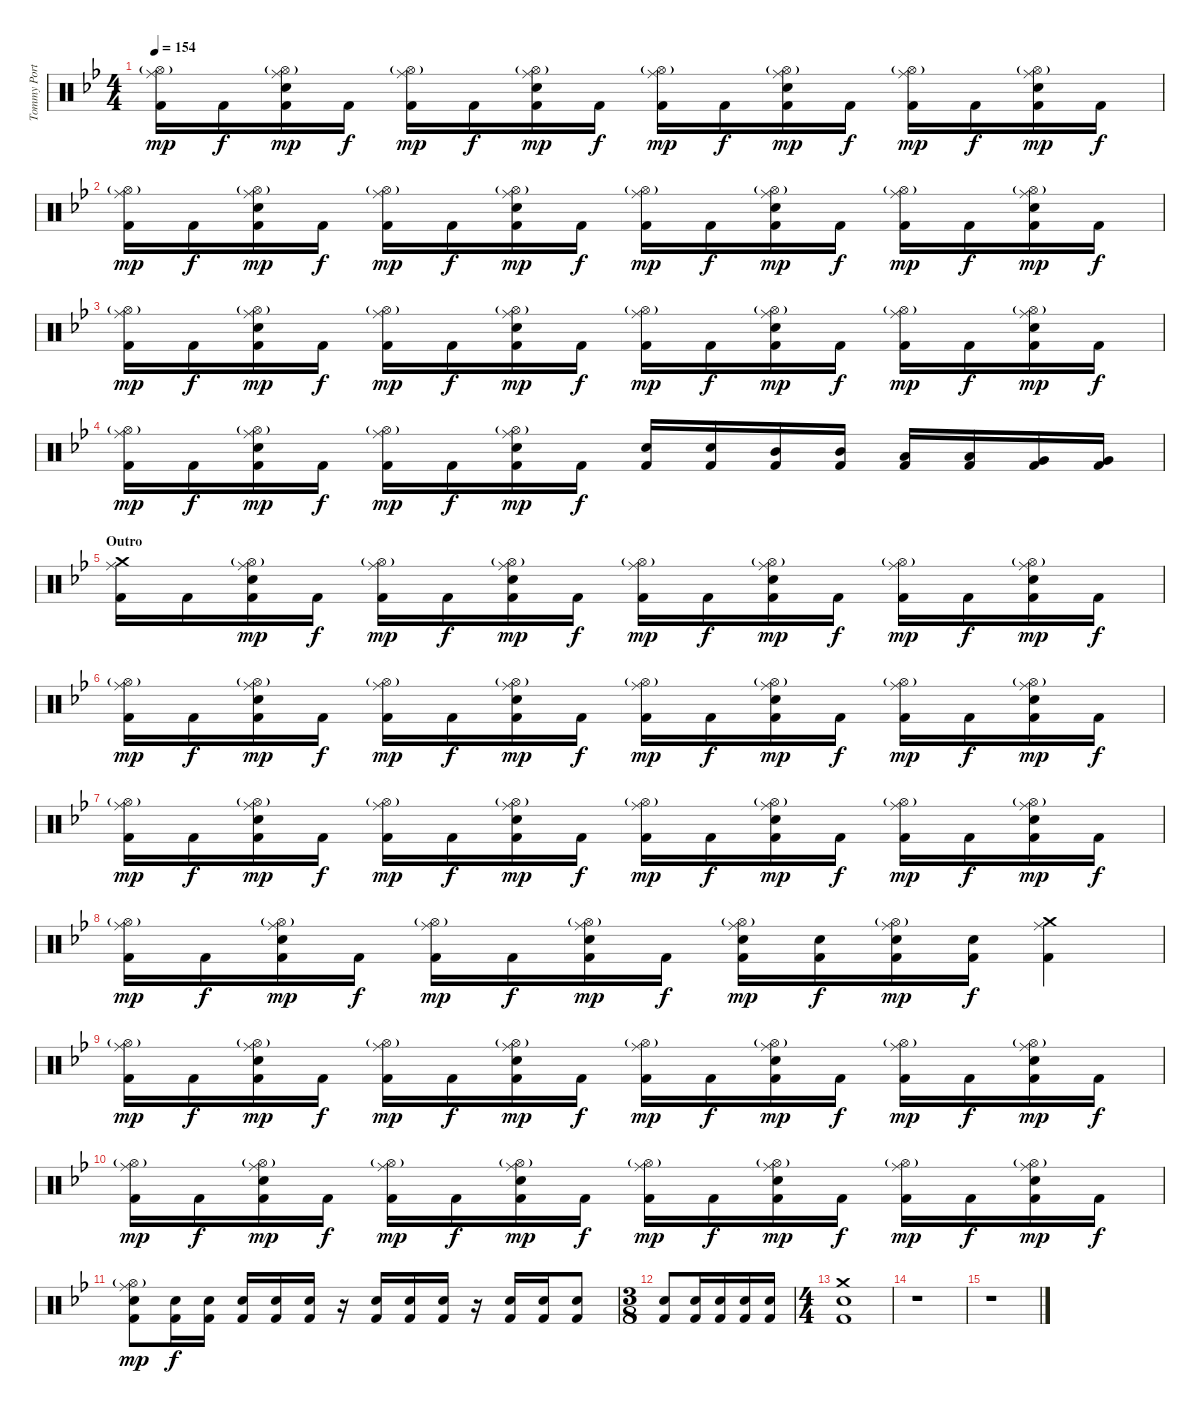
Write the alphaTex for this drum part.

\track ("Tommy Portimo" "Tommy Port") {instrument percussion}
\staff {score}
\articulation defaults
\ts (4 4)
\tempo 154
\clef neutral
\ks gminor
("Hi-Hat (open)"{g} "Ride (middle)" "Kick (hit) 2").16{dy mp} "Kick (hit) 2".16{dy f} ("Hi-Hat (open)"{g} "Ride (middle)" "Electric Snare (hit)" "Kick (hit) 2").16{dy mp} "Kick (hit) 2".16{dy f} ("Hi-Hat (open)"{g} "Ride (middle)" "Kick (hit) 2").16{dy mp} "Kick (hit) 2".16{dy f} ("Hi-Hat (open)"{g} "Ride (middle)" "Electric Snare (hit)" "Kick (hit) 2").16{dy mp} "Kick (hit) 2".16{dy f} ("Hi-Hat (open)"{g} "Ride (middle)" "Kick (hit) 2").16{dy mp} "Kick (hit) 2".16{dy f} ("Hi-Hat (open)"{g} "Ride (middle)" "Electric Snare (hit)" "Kick (hit) 2").16{dy mp} "Kick (hit) 2".16{dy f} ("Hi-Hat (open)"{g} "Ride (middle)" "Kick (hit) 2").16{dy mp} "Kick (hit) 2".16{dy f} ("Hi-Hat (open)"{g} "Ride (middle)" "Electric Snare (hit)" "Kick (hit) 2").16{dy mp} "Kick (hit) 2".16{dy f} |
("Hi-Hat (open)"{g} "Ride (middle)" "Kick (hit) 2").16{dy mp} "Kick (hit) 2".16{dy f} ("Hi-Hat (open)"{g} "Ride (middle)" "Electric Snare (hit)" "Kick (hit) 2").16{dy mp} "Kick (hit) 2".16{dy f} ("Hi-Hat (open)"{g} "Ride (middle)" "Kick (hit) 2").16{dy mp} "Kick (hit) 2".16{dy f} ("Hi-Hat (open)"{g} "Ride (middle)" "Electric Snare (hit)" "Kick (hit) 2").16{dy mp} "Kick (hit) 2".16{dy f} ("Hi-Hat (open)"{g} "Ride (middle)" "Kick (hit) 2").16{dy mp} "Kick (hit) 2".16{dy f} ("Hi-Hat (open)"{g} "Ride (middle)" "Electric Snare (hit)" "Kick (hit) 2").16{dy mp} "Kick (hit) 2".16{dy f} ("Hi-Hat (open)"{g} "Ride (middle)" "Kick (hit) 2").16{dy mp} "Kick (hit) 2".16{dy f} ("Hi-Hat (open)"{g} "Ride (middle)" "Electric Snare (hit)" "Kick (hit) 2").16{dy mp} "Kick (hit) 2".16{dy f} |
("Hi-Hat (open)"{g} "Ride (middle)" "Kick (hit) 2").16{dy mp} "Kick (hit) 2".16{dy f} ("Hi-Hat (open)"{g} "Ride (middle)" "Electric Snare (hit)" "Kick (hit) 2").16{dy mp} "Kick (hit) 2".16{dy f} ("Hi-Hat (open)"{g} "Ride (middle)" "Kick (hit) 2").16{dy mp} "Kick (hit) 2".16{dy f} ("Hi-Hat (open)"{g} "Ride (middle)" "Electric Snare (hit)" "Kick (hit) 2").16{dy mp} "Kick (hit) 2".16{dy f} ("Hi-Hat (open)"{g} "Ride (middle)" "Kick (hit) 2").16{dy mp} "Kick (hit) 2".16{dy f} ("Hi-Hat (open)"{g} "Ride (middle)" "Electric Snare (hit)" "Kick (hit) 2").16{dy mp} "Kick (hit) 2".16{dy f} ("Hi-Hat (open)"{g} "Ride (middle)" "Kick (hit) 2").16{dy mp} "Kick (hit) 2".16{dy f} ("Hi-Hat (open)"{g} "Ride (middle)" "Electric Snare (hit)" "Kick (hit) 2").16{dy mp} "Kick (hit) 2".16{dy f} |
("Hi-Hat (open)"{g} "Ride (middle)" "Kick (hit) 2").16{dy mp} "Kick (hit) 2".16{dy f} ("Hi-Hat (open)"{g} "Ride (middle)" "Electric Snare (hit)" "Kick (hit) 2").16{dy mp} "Kick (hit) 2".16{dy f} ("Hi-Hat (open)"{g} "Ride (middle)" "Kick (hit) 2").16{dy mp} "Kick (hit) 2".16{dy f} ("Hi-Hat (open)"{g} "Ride (middle)" "Electric Snare (hit)" "Kick (hit) 2").16{dy mp} "Kick (hit) 2".16{dy f} ("Electric Snare (hit)" "Kick (hit) 2").16 ("Electric Snare (hit)" "Kick (hit) 2").16 ("Mid Tom (hit)" "Kick (hit) 2").16 ("Mid Tom (hit)" "Kick (hit) 2").16 ("Low Tom (hit)" "Kick (hit) 2").16 ("Low Tom (hit)" "Kick (hit) 2").16 ("Very Low Tom (hit)" "Kick (hit) 2").16 ("Very Low Tom (hit)" "Kick (hit) 2").16 |
\section ("" "Outro")
("Crash medium (hit)" "Ride (middle)" "Kick (hit) 2").16 "Kick (hit) 2".16 ("Hi-Hat (open)"{g} "Ride (middle)" "Electric Snare (hit)" "Kick (hit) 2").16{dy mp} "Kick (hit) 2".16{dy f} ("Hi-Hat (open)"{g} "Ride (middle)" "Kick (hit) 2").16{dy mp} "Kick (hit) 2".16{dy f} ("Hi-Hat (open)"{g} "Ride (middle)" "Electric Snare (hit)" "Kick (hit) 2").16{dy mp} "Kick (hit) 2".16{dy f} ("Hi-Hat (open)"{g} "Ride (middle)" "Kick (hit) 2").16{dy mp} "Kick (hit) 2".16{dy f} ("Hi-Hat (open)"{g} "Ride (middle)" "Electric Snare (hit)" "Kick (hit) 2").16{dy mp} "Kick (hit) 2".16{dy f} ("Hi-Hat (open)"{g} "Ride (middle)" "Kick (hit) 2").16{dy mp} "Kick (hit) 2".16{dy f} ("Hi-Hat (open)"{g} "Ride (middle)" "Electric Snare (hit)" "Kick (hit) 2").16{dy mp} "Kick (hit) 2".16{dy f} |
("Hi-Hat (open)"{g} "Ride (middle)" "Kick (hit) 2").16{dy mp} "Kick (hit) 2".16{dy f} ("Hi-Hat (open)"{g} "Ride (middle)" "Electric Snare (hit)" "Kick (hit) 2").16{dy mp} "Kick (hit) 2".16{dy f} ("Hi-Hat (open)"{g} "Ride (middle)" "Kick (hit) 2").16{dy mp} "Kick (hit) 2".16{dy f} ("Hi-Hat (open)"{g} "Ride (middle)" "Electric Snare (hit)" "Kick (hit) 2").16{dy mp} "Kick (hit) 2".16{dy f} ("Hi-Hat (open)"{g} "Ride (middle)" "Kick (hit) 2").16{dy mp} "Kick (hit) 2".16{dy f} ("Hi-Hat (open)"{g} "Ride (middle)" "Electric Snare (hit)" "Kick (hit) 2").16{dy mp} "Kick (hit) 2".16{dy f} ("Hi-Hat (open)"{g} "Ride (middle)" "Kick (hit) 2").16{dy mp} "Kick (hit) 2".16{dy f} ("Hi-Hat (open)"{g} "Ride (middle)" "Electric Snare (hit)" "Kick (hit) 2").16{dy mp} "Kick (hit) 2".16{dy f} |
("Hi-Hat (open)"{g} "Ride (middle)" "Kick (hit) 2").16{dy mp} "Kick (hit) 2".16{dy f} ("Hi-Hat (open)"{g} "Ride (middle)" "Electric Snare (hit)" "Kick (hit) 2").16{dy mp} "Kick (hit) 2".16{dy f} ("Hi-Hat (open)"{g} "Ride (middle)" "Kick (hit) 2").16{dy mp} "Kick (hit) 2".16{dy f} ("Hi-Hat (open)"{g} "Ride (middle)" "Electric Snare (hit)" "Kick (hit) 2").16{dy mp} "Kick (hit) 2".16{dy f} ("Hi-Hat (open)"{g} "Ride (middle)" "Kick (hit) 2").16{dy mp} "Kick (hit) 2".16{dy f} ("Hi-Hat (open)"{g} "Ride (middle)" "Electric Snare (hit)" "Kick (hit) 2").16{dy mp} "Kick (hit) 2".16{dy f} ("Hi-Hat (open)"{g} "Ride (middle)" "Kick (hit) 2").16{dy mp} "Kick (hit) 2".16{dy f} ("Hi-Hat (open)"{g} "Ride (middle)" "Electric Snare (hit)" "Kick (hit) 2").16{dy mp} "Kick (hit) 2".16{dy f} |
("Hi-Hat (open)"{g} "Ride (middle)" "Kick (hit) 2").16{dy mp} "Kick (hit) 2".16{dy f} ("Hi-Hat (open)"{g} "Ride (middle)" "Electric Snare (hit)" "Kick (hit) 2").16{dy mp} "Kick (hit) 2".16{dy f} ("Hi-Hat (open)"{g} "Ride (middle)" "Kick (hit) 2").16{dy mp} "Kick (hit) 2".16{dy f} ("Hi-Hat (open)"{g} "Ride (middle)" "Electric Snare (hit)" "Kick (hit) 2").16{dy mp} "Kick (hit) 2".16{dy f} ("Hi-Hat (open)"{g} "Ride (middle)" "Electric Snare (hit)" "Kick (hit) 2").16{dy mp} ("Electric Snare (hit)" "Kick (hit) 2").16{dy f} ("Hi-Hat (open)"{g} "Ride (middle)" "Electric Snare (hit)" "Kick (hit) 2").16{dy mp} ("Electric Snare (hit)" "Kick (hit) 2").16{dy f} ("Crash medium (hit)" "Ride (middle)" "Kick (hit) 2").4 |
("Hi-Hat (open)"{g} "Ride (middle)" "Kick (hit) 2").16{dy mp} "Kick (hit) 2".16{dy f} ("Hi-Hat (open)"{g} "Ride (middle)" "Electric Snare (hit)" "Kick (hit) 2").16{dy mp} "Kick (hit) 2".16{dy f} ("Hi-Hat (open)"{g} "Ride (middle)" "Kick (hit) 2").16{dy mp} "Kick (hit) 2".16{dy f} ("Hi-Hat (open)"{g} "Ride (middle)" "Electric Snare (hit)" "Kick (hit) 2").16{dy mp} "Kick (hit) 2".16{dy f} ("Hi-Hat (open)"{g} "Ride (middle)" "Kick (hit) 2").16{dy mp} "Kick (hit) 2".16{dy f} ("Hi-Hat (open)"{g} "Ride (middle)" "Electric Snare (hit)" "Kick (hit) 2").16{dy mp} "Kick (hit) 2".16{dy f} ("Hi-Hat (open)"{g} "Ride (middle)" "Kick (hit) 2").16{dy mp} "Kick (hit) 2".16{dy f} ("Hi-Hat (open)"{g} "Ride (middle)" "Electric Snare (hit)" "Kick (hit) 2").16{dy mp} "Kick (hit) 2".16{dy f} |
("Hi-Hat (open)"{g} "Ride (middle)" "Kick (hit) 2").16{dy mp} "Kick (hit) 2".16{dy f} ("Hi-Hat (open)"{g} "Ride (middle)" "Electric Snare (hit)" "Kick (hit) 2").16{dy mp} "Kick (hit) 2".16{dy f} ("Hi-Hat (open)"{g} "Ride (middle)" "Kick (hit) 2").16{dy mp} "Kick (hit) 2".16{dy f} ("Hi-Hat (open)"{g} "Ride (middle)" "Electric Snare (hit)" "Kick (hit) 2").16{dy mp} "Kick (hit) 2".16{dy f} ("Hi-Hat (open)"{g} "Ride (middle)" "Kick (hit) 2").16{dy mp} "Kick (hit) 2".16{dy f} ("Hi-Hat (open)"{g} "Ride (middle)" "Electric Snare (hit)" "Kick (hit) 2").16{dy mp} "Kick (hit) 2".16{dy f} ("Hi-Hat (open)"{g} "Ride (middle)" "Kick (hit) 2").16{dy mp} "Kick (hit) 2".16{dy f} ("Hi-Hat (open)"{g} "Ride (middle)" "Electric Snare (hit)" "Kick (hit) 2").16{dy mp} "Kick (hit) 2".16{dy f} |
("Hi-Hat (open)"{g} "Ride (middle)" "Electric Snare (hit)" "Kick (hit) 2").8{dy mp} ("Electric Snare (hit)" "Kick (hit) 2").16{dy f} ("Electric Snare (hit)" "Kick (hit) 2").16 ("Electric Snare (hit)" "Kick (hit) 2").16 ("Electric Snare (hit)" "Kick (hit) 2").16 ("Electric Snare (hit)" "Kick (hit) 2").16 r.16 ("Electric Snare (hit)" "Kick (hit) 2").16 ("Electric Snare (hit)" "Kick (hit) 2").16 ("Electric Snare (hit)" "Kick (hit) 2").16 r.16 ("Electric Snare (hit)" "Kick (hit) 2").16 ("Electric Snare (hit)" "Kick (hit) 2").16 ("Electric Snare (hit)" "Kick (hit) 2").8 |
\ts (3 8)
("Electric Snare (hit)" "Kick (hit) 2").8 ("Electric Snare (hit)" "Kick (hit) 2").16 ("Electric Snare (hit)" "Kick (hit) 2").16 ("Electric Snare (hit)" "Kick (hit) 2").16 ("Electric Snare (hit)" "Kick (hit) 2").16 |
\ts (4 4)
("Crash medium (hit)" "Electric Snare (hit)" "Kick (hit) 2").1 |
r.1 |
r.1
